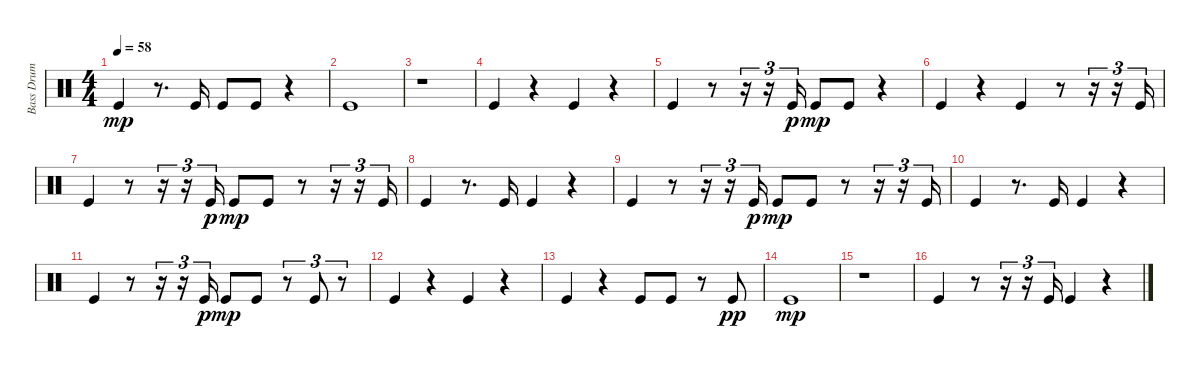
\track ("Bass Drum" "Bass Drum") {instrument percussion}
\staff {score}
\articulation defaults
\ts (4 4)
\tempo 58
\clef neutral
\ks c "Kick (hit)".4{dy mp}
r.8{d} "Kick (hit)".16 "Kick (hit)".8 "Kick (hit)".8 r.4 |
"Kick (hit)".1 |
r.1 |
"Kick (hit)".4 r.4 "Kick (hit)".4 r.4 |
"Kick (hit)".4 r.8 r.16{tu (3 2)} r.16{tu (3 2)} "Kick (hit)".16{tu (3 2) dy p} "Kick (hit)".8{dy mp} "Kick (hit)".8 r.4 |
"Kick (hit)".4 r.4 "Kick (hit)".4 r.8 r.16{tu (3 2)} r.16{tu (3 2)} "Kick (hit)".16{tu (3 2)} |
"Kick (hit)".4 r.8 r.16{tu (3 2)} r.16{tu (3 2)} "Kick (hit)".16{tu (3 2) dy p} "Kick (hit)".8{dy mp} "Kick (hit)".8 r.8 r.16{tu (3 2)} r.16{tu (3 2)} "Kick (hit)".16{tu (3 2)} |
"Kick (hit)".4 r.8{d} "Kick (hit)".16 "Kick (hit)".4 r.4 |
"Kick (hit)".4 r.8 r.16{tu (3 2)} r.16{tu (3 2)} "Kick (hit)".16{tu (3 2) dy p} "Kick (hit)".8{dy mp} "Kick (hit)".8 r.8 r.16{tu (3 2)} r.16{tu (3 2)} "Kick (hit)".16{tu (3 2)} |
"Kick (hit)".4 r.8{d} "Kick (hit)".16 "Kick (hit)".4 r.4 |
"Kick (hit)".4 r.8 r.16{tu (3 2)} r.16{tu (3 2)} "Kick (hit)".16{tu (3 2) dy p} "Kick (hit)".8{dy mp} "Kick (hit)".8 r.8{tu (3 2)} "Kick (hit)".8{tu (3 2)} r.8{tu (3 2)} |
"Kick (hit)".4 r.4 "Kick (hit)".4 r.4 |
"Kick (hit)".4 r.4 "Kick (hit)".8 "Kick (hit)".8 r.8 "Kick (hit)".8{dy pp} |
"Kick (hit)".1{dy mp} |
r.1 |
"Kick (hit)".4 r.8 r.16{tu (3 2)} r.16{tu (3 2)} "Kick (hit)".16{tu (3 2)} "Kick (hit)".4 r.4
